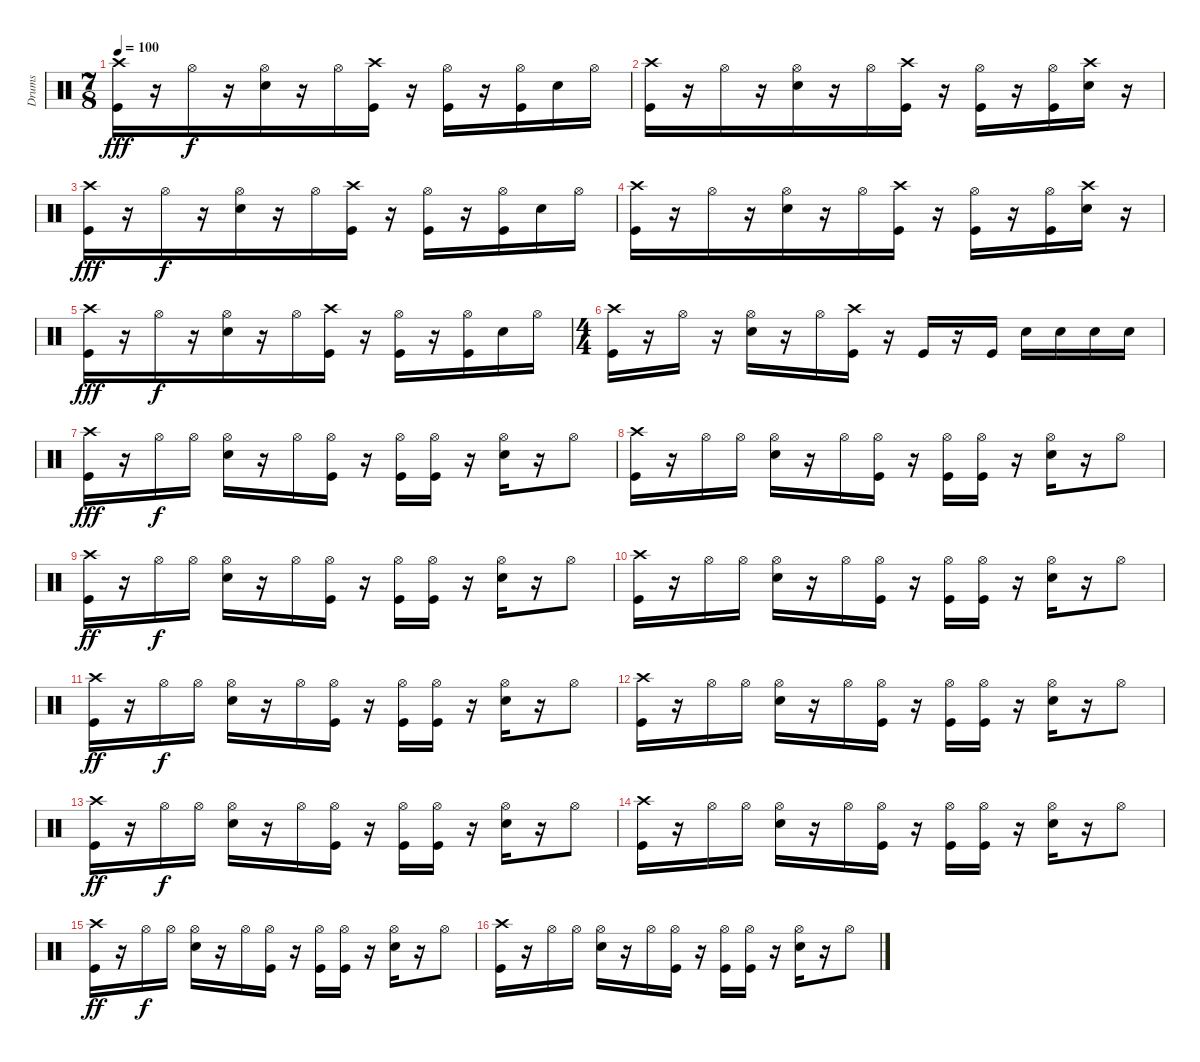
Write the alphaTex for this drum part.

\track ("Drums" "Drums") {instrument percussion}
\staff {score}
\articulation defaults
\ts (7 8)
\tempo 100
\clef neutral
\ks c
("Crash high (hit)" "Kick (hit)").16{dy fff} r.16 "Hi-Hat (open)".16{dy f} r.16 ("Hi-Hat (open)" "Electric Snare (hit)").16 r.16 "Hi-Hat (open)".16 ("Crash high (hit)" "Kick (hit)").16 r.16 ("Hi-Hat (open)" "Kick (hit)").16 r.16 ("Hi-Hat (open)" "Kick (hit)").16 "Electric Snare (hit)".16 "Hi-Hat (open)".16 |
("Crash high (hit)" "Kick (hit)").16 r.16 "Hi-Hat (open)".16 r.16 ("Hi-Hat (open)" "Electric Snare (hit)").16 r.16 "Hi-Hat (open)".16 ("Crash high (hit)" "Kick (hit)").16 r.16 ("Hi-Hat (open)" "Kick (hit)").16 r.16 ("Hi-Hat (open)" "Kick (hit)").16 ("Crash high (hit)" "Electric Snare (hit)").16 r.16 |
("Crash high (hit)" "Kick (hit)").16{dy fff} r.16 "Hi-Hat (open)".16{dy f} r.16 ("Hi-Hat (open)" "Electric Snare (hit)").16 r.16 "Hi-Hat (open)".16 ("Crash high (hit)" "Kick (hit)").16 r.16 ("Hi-Hat (open)" "Kick (hit)").16 r.16 ("Hi-Hat (open)" "Kick (hit)").16 "Electric Snare (hit)".16 "Hi-Hat (open)".16 |
("Crash high (hit)" "Kick (hit)").16 r.16 "Hi-Hat (open)".16 r.16 ("Hi-Hat (open)" "Electric Snare (hit)").16 r.16 "Hi-Hat (open)".16 ("Crash high (hit)" "Kick (hit)").16 r.16 ("Hi-Hat (open)" "Kick (hit)").16 r.16 ("Hi-Hat (open)" "Kick (hit)").16 ("Crash high (hit)" "Electric Snare (hit)").16 r.16 |
("Crash high (hit)" "Kick (hit)").16{dy fff} r.16 "Hi-Hat (open)".16{dy f} r.16 ("Hi-Hat (open)" "Electric Snare (hit)").16 r.16 "Hi-Hat (open)".16 ("Crash high (hit)" "Kick (hit)").16 r.16 ("Hi-Hat (open)" "Kick (hit)").16 r.16 ("Hi-Hat (open)" "Kick (hit)").16 "Electric Snare (hit)".16 "Hi-Hat (open)".16 |
\ts (4 4)
("Crash high (hit)" "Kick (hit)").16 r.16 "Hi-Hat (open)".16 r.16 ("Hi-Hat (open)" "Electric Snare (hit)").16 r.16 "Hi-Hat (open)".16 ("Crash high (hit)" "Kick (hit)").16 r.16 "Kick (hit)".16 r.16 "Kick (hit)".16 "Electric Snare (hit)".16 "Electric Snare (hit)".16 "Electric Snare (hit)".16 "Electric Snare (hit)".16 |
("Crash high (hit)" "Kick (hit)").16{dy fff} r.16 "Hi-Hat (open)".16{dy f} "Hi-Hat (open)".16 ("Hi-Hat (open)" "Electric Snare (hit)").16 r.16 "Hi-Hat (open)".16 ("Hi-Hat (open)" "Kick (hit)").16 r.16 ("Hi-Hat (open)" "Kick (hit)").16 ("Hi-Hat (open)" "Kick (hit)").16 r.16 ("Hi-Hat (open)" "Electric Snare (hit)").16 r.16 "Hi-Hat (open)".8 |
("Crash high (hit)" "Kick (hit)").16 r.16 "Hi-Hat (open)".16 "Hi-Hat (open)".16 ("Hi-Hat (open)" "Electric Snare (hit)").16 r.16 "Hi-Hat (open)".16 ("Hi-Hat (open)" "Kick (hit)").16 r.16 ("Hi-Hat (open)" "Kick (hit)").16 ("Hi-Hat (open)" "Kick (hit)").16 r.16 ("Hi-Hat (open)" "Electric Snare (hit)").16 r.16 "Hi-Hat (open)".8 |
("Crash high (hit)" "Kick (hit)").16{dy ff} r.16 "Hi-Hat (open)".16{dy f} "Hi-Hat (open)".16 ("Hi-Hat (open)" "Electric Snare (hit)").16 r.16 "Hi-Hat (open)".16 ("Hi-Hat (open)" "Kick (hit)").16 r.16 ("Hi-Hat (open)" "Kick (hit)").16 ("Hi-Hat (open)" "Kick (hit)").16 r.16 ("Hi-Hat (open)" "Electric Snare (hit)").16 r.16 "Hi-Hat (open)".8 |
("Crash high (hit)" "Kick (hit)").16 r.16 "Hi-Hat (open)".16 "Hi-Hat (open)".16 ("Hi-Hat (open)" "Electric Snare (hit)").16 r.16 "Hi-Hat (open)".16 ("Hi-Hat (open)" "Kick (hit)").16 r.16 ("Hi-Hat (open)" "Kick (hit)").16 ("Hi-Hat (open)" "Kick (hit)").16 r.16 ("Hi-Hat (open)" "Electric Snare (hit)").16 r.16 "Hi-Hat (open)".8 |
("Crash high (hit)" "Kick (hit)").16{dy ff} r.16 "Hi-Hat (open)".16{dy f} "Hi-Hat (open)".16 ("Hi-Hat (open)" "Electric Snare (hit)").16 r.16 "Hi-Hat (open)".16 ("Hi-Hat (open)" "Kick (hit)").16 r.16 ("Hi-Hat (open)" "Kick (hit)").16 ("Hi-Hat (open)" "Kick (hit)").16 r.16 ("Hi-Hat (open)" "Electric Snare (hit)").16 r.16 "Hi-Hat (open)".8 |
("Crash high (hit)" "Kick (hit)").16 r.16 "Hi-Hat (open)".16 "Hi-Hat (open)".16 ("Hi-Hat (open)" "Electric Snare (hit)").16 r.16 "Hi-Hat (open)".16 ("Hi-Hat (open)" "Kick (hit)").16 r.16 ("Hi-Hat (open)" "Kick (hit)").16 ("Hi-Hat (open)" "Kick (hit)").16 r.16 ("Hi-Hat (open)" "Electric Snare (hit)").16 r.16 "Hi-Hat (open)".8 |
("Crash high (hit)" "Kick (hit)").16{dy ff} r.16 "Hi-Hat (open)".16{dy f} "Hi-Hat (open)".16 ("Hi-Hat (open)" "Electric Snare (hit)").16 r.16 "Hi-Hat (open)".16 ("Hi-Hat (open)" "Kick (hit)").16 r.16 ("Hi-Hat (open)" "Kick (hit)").16 ("Hi-Hat (open)" "Kick (hit)").16 r.16 ("Hi-Hat (open)" "Electric Snare (hit)").16 r.16 "Hi-Hat (open)".8 |
("Crash high (hit)" "Kick (hit)").16 r.16 "Hi-Hat (open)".16 "Hi-Hat (open)".16 ("Hi-Hat (open)" "Electric Snare (hit)").16 r.16 "Hi-Hat (open)".16 ("Hi-Hat (open)" "Kick (hit)").16 r.16 ("Hi-Hat (open)" "Kick (hit)").16 ("Hi-Hat (open)" "Kick (hit)").16 r.16 ("Hi-Hat (open)" "Electric Snare (hit)").16 r.16 "Hi-Hat (open)".8 |
("Crash high (hit)" "Kick (hit)").16{dy ff} r.16 "Hi-Hat (open)".16{dy f} "Hi-Hat (open)".16 ("Hi-Hat (open)" "Electric Snare (hit)").16 r.16 "Hi-Hat (open)".16 ("Hi-Hat (open)" "Kick (hit)").16 r.16 ("Hi-Hat (open)" "Kick (hit)").16 ("Hi-Hat (open)" "Kick (hit)").16 r.16 ("Hi-Hat (open)" "Electric Snare (hit)").16 r.16 "Hi-Hat (open)".8 |
("Crash high (hit)" "Kick (hit)").16 r.16 "Hi-Hat (open)".16 "Hi-Hat (open)".16 ("Hi-Hat (open)" "Electric Snare (hit)").16 r.16 "Hi-Hat (open)".16 ("Hi-Hat (open)" "Kick (hit)").16 r.16 ("Hi-Hat (open)" "Kick (hit)").16 ("Hi-Hat (open)" "Kick (hit)").16 r.16 ("Hi-Hat (open)" "Electric Snare (hit)").16 r.16 "Hi-Hat (open)".8
